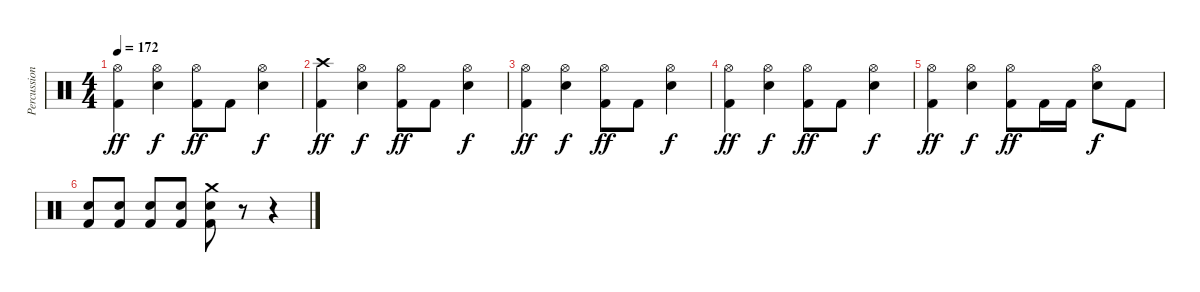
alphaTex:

\track ("Percussion" "Percussion") {instrument percussion}
\staff {score}
\articulation defaults
\ts (4 4)
\tempo 172
\clef neutral
\ks c
("Hi-Hat (open)" "Kick (hit) 2").4{dy ff} ("Hi-Hat (open)" "Snare (hit) 2").4{dy f} ("Hi-Hat (open)" "Kick (hit) 2").8{dy ff} "Kick (hit) 2".8 ("Hi-Hat (open)" "Snare (hit) 2").4{dy f} |
("Crash high (hit)" "Kick (hit) 2").4{dy ff} ("Hi-Hat (open)" "Snare (hit) 2").4{dy f} ("Hi-Hat (open)" "Kick (hit) 2").8{dy ff} "Kick (hit) 2".8 ("Hi-Hat (open)" "Snare (hit) 2").4{dy f} |
("Hi-Hat (open)" "Kick (hit) 2").4{dy ff} ("Hi-Hat (open)" "Snare (hit) 2").4{dy f} ("Hi-Hat (open)" "Kick (hit) 2").8{dy ff} "Kick (hit) 2".8 ("Hi-Hat (open)" "Snare (hit) 2").4{dy f} |
("Hi-Hat (open)" "Kick (hit) 2").4{dy ff} ("Hi-Hat (open)" "Snare (hit) 2").4{dy f} ("Hi-Hat (open)" "Kick (hit) 2").8{dy ff} "Kick (hit) 2".8 ("Hi-Hat (open)" "Snare (hit) 2").4{dy f} |
("Hi-Hat (open)" "Kick (hit) 2").4{dy ff} ("Hi-Hat (open)" "Snare (hit) 2").4{dy f} ("Hi-Hat (open)" "Kick (hit) 2").8{dy ff} "Kick (hit) 2".16 "Kick (hit) 2".16 ("Hi-Hat (open)" "Snare (hit) 2").8{dy f} "Kick (hit) 2".8 |
("Snare (hit) 2" "Kick (hit) 2").8 ("Snare (hit) 2" "Kick (hit) 2").8 ("Snare (hit) 2" "Kick (hit) 2").8 ("Snare (hit) 2" "Kick (hit) 2").8 ("Crash medium (hit)" "Snare (hit) 2" "Kick (hit) 2").8 r.8 r.4
